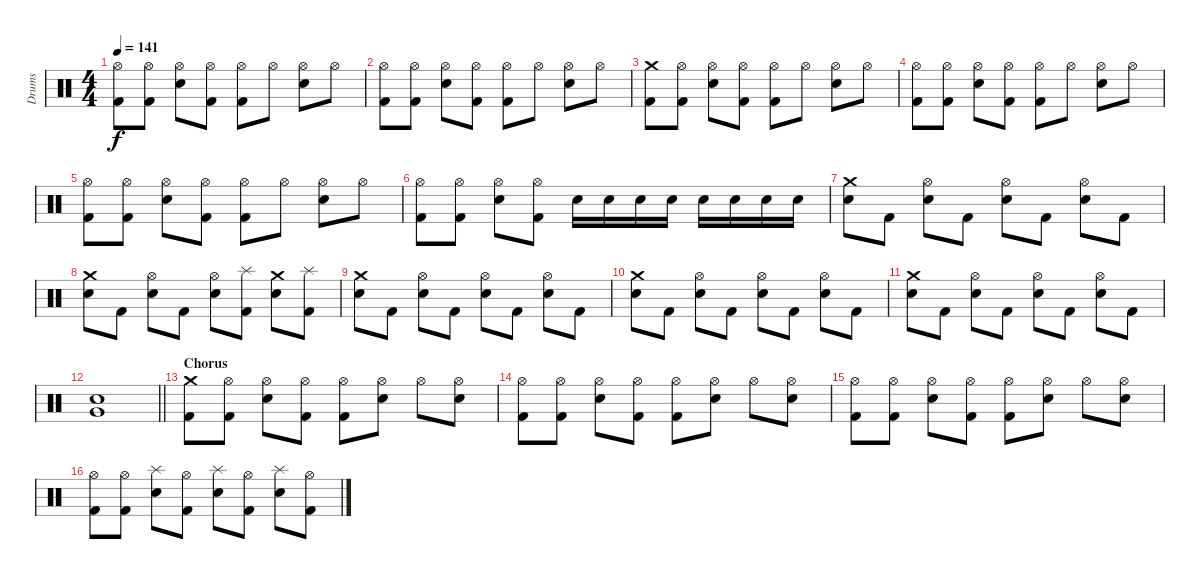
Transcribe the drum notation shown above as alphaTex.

\track ("Drums" "Drums") {instrument percussion}
\staff {score}
\articulation defaults
\ts (4 4)
\tempo 141
\clef neutral
\ks c
("Hi-Hat (open)" "Kick (hit) 2").8{dy f} ("Hi-Hat (open)" "Kick (hit) 2").8 ("Hi-Hat (open)" "Electric Snare (hit)").8 ("Hi-Hat (open)" "Kick (hit) 2").8 ("Hi-Hat (open)" "Kick (hit) 2").8 "Hi-Hat (open)".8 ("Hi-Hat (open)" "Electric Snare (hit)").8 "Hi-Hat (open)".8 |
("Hi-Hat (open)" "Kick (hit) 2").8 ("Hi-Hat (open)" "Kick (hit) 2").8 ("Hi-Hat (open)" "Electric Snare (hit)").8 ("Hi-Hat (open)" "Kick (hit) 2").8 ("Hi-Hat (open)" "Kick (hit) 2").8 "Hi-Hat (open)".8 ("Hi-Hat (open)" "Electric Snare (hit)").8 "Hi-Hat (open)".8 |
("Crash medium (hit)" "Kick (hit) 2").8 ("Hi-Hat (open)" "Kick (hit) 2").8 ("Hi-Hat (open)" "Electric Snare (hit)").8 ("Hi-Hat (open)" "Kick (hit) 2").8 ("Hi-Hat (open)" "Kick (hit) 2").8 "Hi-Hat (open)".8 ("Hi-Hat (open)" "Electric Snare (hit)").8 "Hi-Hat (open)".8 |
("Hi-Hat (open)" "Kick (hit) 2").8 ("Hi-Hat (open)" "Kick (hit) 2").8 ("Hi-Hat (open)" "Electric Snare (hit)").8 ("Hi-Hat (open)" "Kick (hit) 2").8 ("Hi-Hat (open)" "Kick (hit) 2").8 "Hi-Hat (open)".8 ("Hi-Hat (open)" "Electric Snare (hit)").8 "Hi-Hat (open)".8 |
("Hi-Hat (open)" "Kick (hit) 2").8 ("Hi-Hat (open)" "Kick (hit) 2").8 ("Hi-Hat (open)" "Electric Snare (hit)").8 ("Hi-Hat (open)" "Kick (hit) 2").8 ("Hi-Hat (open)" "Kick (hit) 2").8 "Hi-Hat (open)".8 ("Hi-Hat (open)" "Electric Snare (hit)").8 "Hi-Hat (open)".8 |
("Hi-Hat (open)" "Kick (hit) 2").8 ("Hi-Hat (open)" "Kick (hit) 2").8 ("Hi-Hat (open)" "Electric Snare (hit)").8 ("Hi-Hat (open)" "Kick (hit) 2").8 "Electric Snare (hit)".16 "Electric Snare (hit)".16 "Electric Snare (hit)".16 "Electric Snare (hit)".16 "Electric Snare (hit)".16 "Electric Snare (hit)".16 "Electric Snare (hit)".16 "Electric Snare (hit)".16 |
("Crash medium (hit)" "Electric Snare (hit)").8 "Kick (hit) 2".8 ("Hi-Hat (open)" "Electric Snare (hit)").8 "Kick (hit) 2".8 ("Hi-Hat (open)" "Electric Snare (hit)").8 "Kick (hit) 2".8 ("Hi-Hat (open)" "Electric Snare (hit)").8 "Kick (hit) 2".8 |
("Crash medium (hit)" "Electric Snare (hit)").8 "Kick (hit) 2".8 ("Hi-Hat (open)" "Electric Snare (hit)").8 "Kick (hit) 2".8 ("Hi-Hat (open)" "Electric Snare (hit)").8 ("Splash (hit)" "Kick (hit) 2").8 ("Crash medium (hit)" "Electric Snare (hit)").8 ("Splash (hit)" "Kick (hit) 2").8 |
("Crash medium (hit)" "Electric Snare (hit)").8 "Kick (hit) 2".8 ("Hi-Hat (open)" "Electric Snare (hit)").8 "Kick (hit) 2".8 ("Hi-Hat (open)" "Electric Snare (hit)").8 "Kick (hit) 2".8 ("Hi-Hat (open)" "Electric Snare (hit)").8 "Kick (hit) 2".8 |
("Crash medium (hit)" "Electric Snare (hit)").8 "Kick (hit) 2".8 ("Hi-Hat (open)" "Electric Snare (hit)").8 "Kick (hit) 2".8 ("Hi-Hat (open)" "Electric Snare (hit)").8 "Kick (hit) 2".8 ("Hi-Hat (open)" "Electric Snare (hit)").8 "Kick (hit) 2".8 |
("Crash medium (hit)" "Electric Snare (hit)").8 "Kick (hit) 2".8 ("Hi-Hat (open)" "Electric Snare (hit)").8 "Kick (hit) 2".8 ("Hi-Hat (open)" "Electric Snare (hit)").8 "Kick (hit) 2".8 ("Hi-Hat (open)" "Electric Snare (hit)").8 "Kick (hit) 2".8 |
\barLineRight lightlight
("Electric Snare (hit)" "Very Low Tom (hit)").1 |
\section ("" "Chorus")
("Crash medium (hit)" "Kick (hit) 2").8 ("Hi-Hat (open)" "Kick (hit) 2").8 ("Hi-Hat (open)" "Electric Snare (hit)").8 ("Hi-Hat (open)" "Kick (hit) 2").8 ("Hi-Hat (open)" "Kick (hit) 2").8 ("Hi-Hat (open)" "Electric Snare (hit)").8 "Hi-Hat (open)".8 ("Hi-Hat (open)" "Electric Snare (hit)").8 |
("Hi-Hat (open)" "Kick (hit) 2").8 ("Hi-Hat (open)" "Kick (hit) 2").8 ("Hi-Hat (open)" "Electric Snare (hit)").8 ("Hi-Hat (open)" "Kick (hit) 2").8 ("Hi-Hat (open)" "Kick (hit) 2").8 ("Hi-Hat (open)" "Electric Snare (hit)").8 "Hi-Hat (open)".8 ("Hi-Hat (open)" "Electric Snare (hit)").8 |
("Hi-Hat (open)" "Kick (hit) 2").8 ("Hi-Hat (open)" "Kick (hit) 2").8 ("Hi-Hat (open)" "Electric Snare (hit)").8 ("Hi-Hat (open)" "Kick (hit) 2").8 ("Hi-Hat (open)" "Kick (hit) 2").8 ("Hi-Hat (open)" "Electric Snare (hit)").8 "Hi-Hat (open)".8 ("Hi-Hat (open)" "Electric Snare (hit)").8 |
("Hi-Hat (open)" "Kick (hit) 2").8 ("Hi-Hat (open)" "Kick (hit) 2").8 ("Splash (hit)" "Electric Snare (hit)").8 ("Hi-Hat (open)" "Kick (hit) 2").8 ("Splash (hit)" "Electric Snare (hit)").8 ("Hi-Hat (open)" "Kick (hit) 2").8 ("Splash (hit)" "Electric Snare (hit)").8 ("Hi-Hat (open)" "Kick (hit) 2").8
